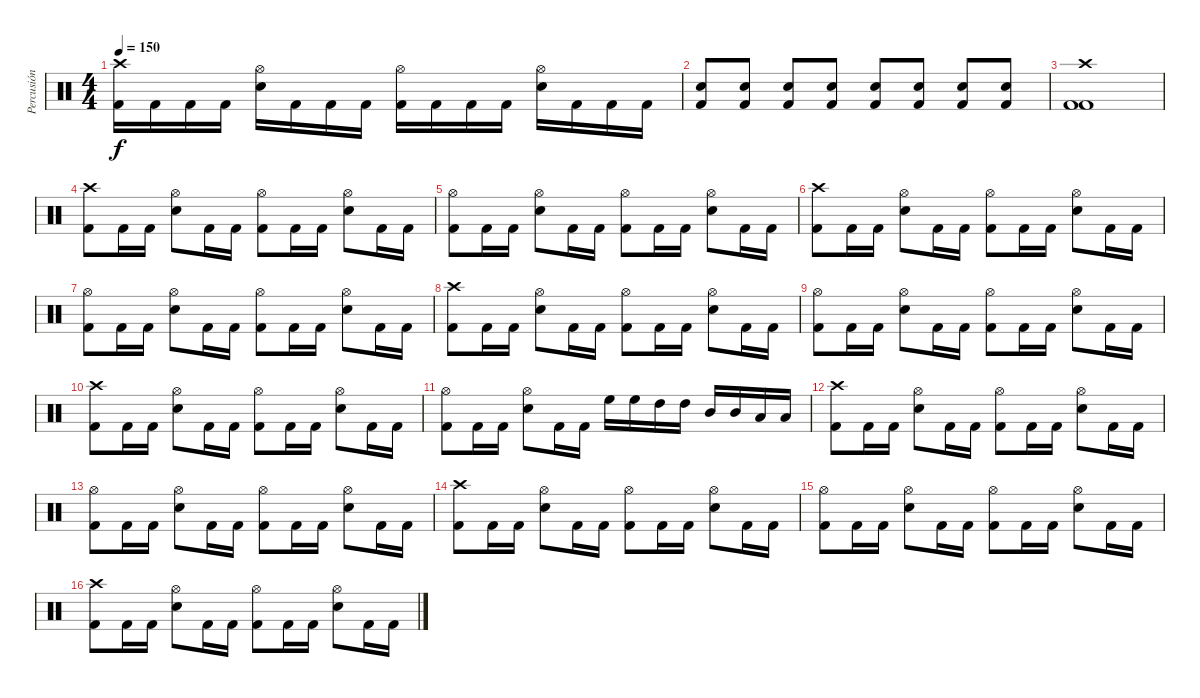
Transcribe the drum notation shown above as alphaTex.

\track ("Percusión" "Percusión") {instrument percussion}
\staff {score}
\articulation defaults
\ts (4 4)
\tempo 150
\clef neutral
\ks c
("Crash high (hit)" "Kick (hit) 2").16{dy f} "Kick (hit) 2".16 "Kick (hit) 2".16 "Kick (hit) 2".16 ("Hi-Hat (open)" "Electric Snare (hit)").16 "Kick (hit) 2".16 "Kick (hit) 2".16 "Kick (hit) 2".16 ("Hi-Hat (open)" "Kick (hit) 2").16 "Kick (hit) 2".16 "Kick (hit) 2".16 "Kick (hit) 2".16 ("Hi-Hat (open)" "Electric Snare (hit)").16 "Kick (hit) 2".16 "Kick (hit) 2".16 "Kick (hit) 2".16 |
("Kick (hit) 2" "Electric Snare (hit)").8 ("Kick (hit) 2" "Electric Snare (hit)").8 ("Kick (hit) 2" "Electric Snare (hit)").8 ("Kick (hit) 2" "Electric Snare (hit)").8 ("Kick (hit) 2" "Electric Snare (hit)").8 ("Kick (hit) 2" "Electric Snare (hit)").8 ("Kick (hit) 2" "Electric Snare (hit)").8 ("Kick (hit) 2" "Electric Snare (hit)").8 |
("Crash high (hit)" "Kick (hit) 2" "Kick (hit) 2").1 |
("Crash high (hit)" "Kick (hit) 2").8 "Kick (hit) 2".16 "Kick (hit) 2".16 ("Hi-Hat (open)" "Electric Snare (hit)").8 "Kick (hit) 2".16 "Kick (hit) 2".16 ("Hi-Hat (open)" "Kick (hit) 2").8 "Kick (hit) 2".16 "Kick (hit) 2".16 ("Hi-Hat (open)" "Electric Snare (hit)").8 "Kick (hit) 2".16 "Kick (hit) 2".16 |
("Hi-Hat (open)" "Kick (hit) 2").8 "Kick (hit) 2".16 "Kick (hit) 2".16 ("Hi-Hat (open)" "Electric Snare (hit)").8 "Kick (hit) 2".16 "Kick (hit) 2".16 ("Hi-Hat (open)" "Kick (hit) 2").8 "Kick (hit) 2".16 "Kick (hit) 2".16 ("Hi-Hat (open)" "Electric Snare (hit)").8 "Kick (hit) 2".16 "Kick (hit) 2".16 |
("Crash high (hit)" "Kick (hit) 2").8 "Kick (hit) 2".16 "Kick (hit) 2".16 ("Hi-Hat (open)" "Electric Snare (hit)").8 "Kick (hit) 2".16 "Kick (hit) 2".16 ("Hi-Hat (open)" "Kick (hit) 2").8 "Kick (hit) 2".16 "Kick (hit) 2".16 ("Hi-Hat (open)" "Electric Snare (hit)").8 "Kick (hit) 2".16 "Kick (hit) 2".16 |
("Hi-Hat (open)" "Kick (hit) 2").8 "Kick (hit) 2".16 "Kick (hit) 2".16 ("Hi-Hat (open)" "Electric Snare (hit)").8 "Kick (hit) 2".16 "Kick (hit) 2".16 ("Hi-Hat (open)" "Kick (hit) 2").8 "Kick (hit) 2".16 "Kick (hit) 2".16 ("Hi-Hat (open)" "Electric Snare (hit)").8 "Kick (hit) 2".16 "Kick (hit) 2".16 |
("Crash high (hit)" "Kick (hit) 2").8 "Kick (hit) 2".16 "Kick (hit) 2".16 ("Hi-Hat (open)" "Electric Snare (hit)").8 "Kick (hit) 2".16 "Kick (hit) 2".16 ("Hi-Hat (open)" "Kick (hit) 2").8 "Kick (hit) 2".16 "Kick (hit) 2".16 ("Hi-Hat (open)" "Electric Snare (hit)").8 "Kick (hit) 2".16 "Kick (hit) 2".16 |
("Hi-Hat (open)" "Kick (hit) 2").8 "Kick (hit) 2".16 "Kick (hit) 2".16 ("Hi-Hat (open)" "Electric Snare (hit)").8 "Kick (hit) 2".16 "Kick (hit) 2".16 ("Hi-Hat (open)" "Kick (hit) 2").8 "Kick (hit) 2".16 "Kick (hit) 2".16 ("Hi-Hat (open)" "Electric Snare (hit)").8 "Kick (hit) 2".16 "Kick (hit) 2".16 |
("Crash high (hit)" "Kick (hit) 2").8 "Kick (hit) 2".16 "Kick (hit) 2".16 ("Hi-Hat (open)" "Electric Snare (hit)").8 "Kick (hit) 2".16 "Kick (hit) 2".16 ("Hi-Hat (open)" "Kick (hit) 2").8 "Kick (hit) 2".16 "Kick (hit) 2".16 ("Hi-Hat (open)" "Electric Snare (hit)").8 "Kick (hit) 2".16 "Kick (hit) 2".16 |
("Hi-Hat (open)" "Kick (hit) 2").8 "Kick (hit) 2".16 "Kick (hit) 2".16 ("Hi-Hat (open)" "Electric Snare (hit)").8 "Kick (hit) 2".16 "Kick (hit) 2".16 "High Floor Tom (hit)".16 "High Floor Tom (hit)".16 "High Tom (hit)".16 "High Tom (hit)".16 "Mid Tom (hit)".16 "Mid Tom (hit)".16 "Low Tom (hit)".16 "Low Tom (hit)".16 |
("Crash high (hit)" "Kick (hit) 2").8 "Kick (hit) 2".16 "Kick (hit) 2".16 ("Hi-Hat (open)" "Electric Snare (hit)").8 "Kick (hit) 2".16 "Kick (hit) 2".16 ("Hi-Hat (open)" "Kick (hit) 2").8 "Kick (hit) 2".16 "Kick (hit) 2".16 ("Hi-Hat (open)" "Electric Snare (hit)").8 "Kick (hit) 2".16 "Kick (hit) 2".16 |
("Hi-Hat (open)" "Kick (hit) 2").8 "Kick (hit) 2".16 "Kick (hit) 2".16 ("Hi-Hat (open)" "Electric Snare (hit)").8 "Kick (hit) 2".16 "Kick (hit) 2".16 ("Hi-Hat (open)" "Kick (hit) 2").8 "Kick (hit) 2".16 "Kick (hit) 2".16 ("Hi-Hat (open)" "Electric Snare (hit)").8 "Kick (hit) 2".16 "Kick (hit) 2".16 |
("Crash high (hit)" "Kick (hit) 2").8 "Kick (hit) 2".16 "Kick (hit) 2".16 ("Hi-Hat (open)" "Electric Snare (hit)").8 "Kick (hit) 2".16 "Kick (hit) 2".16 ("Hi-Hat (open)" "Kick (hit) 2").8 "Kick (hit) 2".16 "Kick (hit) 2".16 ("Hi-Hat (open)" "Electric Snare (hit)").8 "Kick (hit) 2".16 "Kick (hit) 2".16 |
("Hi-Hat (open)" "Kick (hit) 2").8 "Kick (hit) 2".16 "Kick (hit) 2".16 ("Hi-Hat (open)" "Electric Snare (hit)").8 "Kick (hit) 2".16 "Kick (hit) 2".16 ("Hi-Hat (open)" "Kick (hit) 2").8 "Kick (hit) 2".16 "Kick (hit) 2".16 ("Hi-Hat (open)" "Electric Snare (hit)").8 "Kick (hit) 2".16 "Kick (hit) 2".16 |
("Crash high (hit)" "Kick (hit) 2").8 "Kick (hit) 2".16 "Kick (hit) 2".16 ("Hi-Hat (open)" "Electric Snare (hit)").8 "Kick (hit) 2".16 "Kick (hit) 2".16 ("Hi-Hat (open)" "Kick (hit) 2").8 "Kick (hit) 2".16 "Kick (hit) 2".16 ("Hi-Hat (open)" "Electric Snare (hit)").8 "Kick (hit) 2".16 "Kick (hit) 2".16
